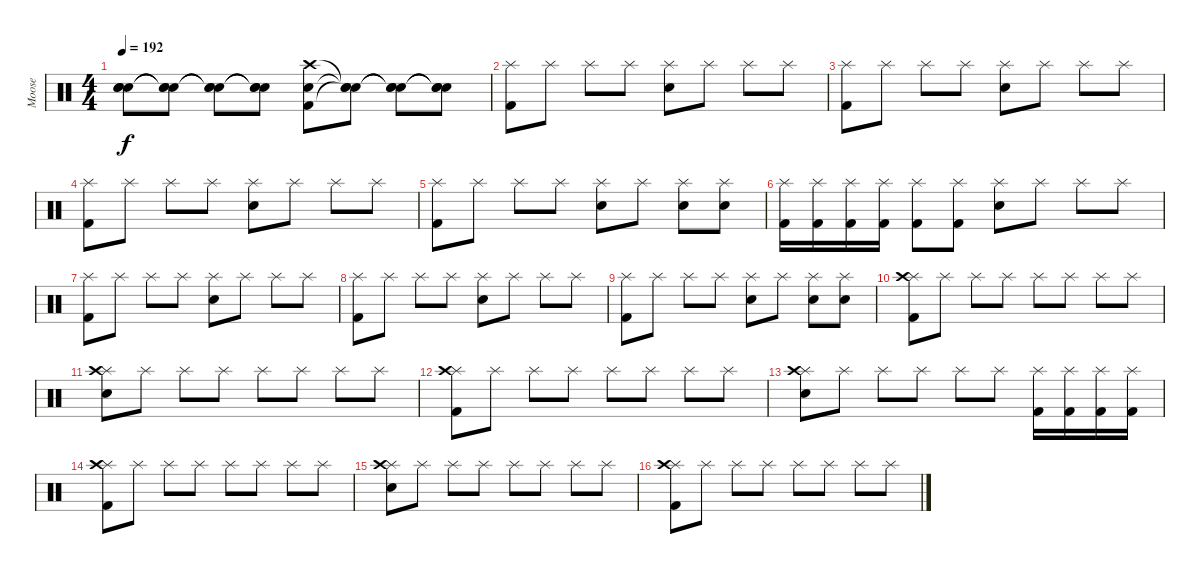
\track ("Moose" "Moose") {instrument percussion}
\staff {score}
\articulation defaults
\ts (4 4)
\tempo 192
\clef neutral
\ks c
("Snare (hit)"{t} "Snare (hit)"{t} "Snare (hit)"{t}).8{dy f} ("Snare (hit)"{t} "Snare (hit)"{t} "Snare (hit)"{t}).8 ("Snare (hit)"{t} "Snare (hit)"{t} "Snare (hit)"{t}).8 ("Snare (hit)"{t} "Snare (hit)"{t} "Snare (hit)"{t}).8 ("Kick (hit) 2" "Electric Snare (hit)" "Crash high (hit)").8 ("Snare (hit)"{t} "Snare (hit)"{t} "Snare (hit)"{t}).8 ("Snare (hit)"{t} "Snare (hit)"{t} "Snare (hit)"{t}).8 ("Snare (hit)"{t} "Snare (hit)"{t} "Snare (hit)"{t}).8 |
("Splash (hit)" "Kick (hit) 2").8 "Splash (hit)".8 "Splash (hit)".8 "Splash (hit)".8 ("Splash (hit)" "Electric Snare (hit)").8 "Splash (hit)".8 "Splash (hit)".8 "Splash (hit)".8 |
("Splash (hit)" "Kick (hit) 2").8 "Splash (hit)".8 "Splash (hit)".8 "Splash (hit)".8 ("Splash (hit)" "Electric Snare (hit)").8 "Splash (hit)".8 "Splash (hit)".8 "Splash (hit)".8 |
("Splash (hit)" "Kick (hit) 2").8 "Splash (hit)".8 "Splash (hit)".8 "Splash (hit)".8 ("Splash (hit)" "Electric Snare (hit)").8 "Splash (hit)".8 "Splash (hit)".8 "Splash (hit)".8 |
("Splash (hit)" "Kick (hit) 2").8 "Splash (hit)".8 "Splash (hit)".8 "Splash (hit)".8 ("Splash (hit)" "Electric Snare (hit)").8 "Splash (hit)".8 ("Splash (hit)" "Electric Snare (hit)").8 ("Splash (hit)" "Electric Snare (hit)").8 |
("Splash (hit)" "Kick (hit) 2").16 ("Splash (hit)" "Kick (hit) 2").16 ("Splash (hit)" "Kick (hit) 2").16 ("Splash (hit)" "Kick (hit) 2").16 ("Splash (hit)" "Kick (hit) 2").8 ("Splash (hit)" "Kick (hit) 2").8 ("Splash (hit)" "Electric Snare (hit)").8 "Splash (hit)".8 "Splash (hit)".8 "Splash (hit)".8 |
("Splash (hit)" "Kick (hit) 2").8 "Splash (hit)".8 "Splash (hit)".8 "Splash (hit)".8 ("Splash (hit)" "Electric Snare (hit)").8 "Splash (hit)".8 "Splash (hit)".8 "Splash (hit)".8 |
("Splash (hit)" "Kick (hit) 2").8 "Splash (hit)".8 "Splash (hit)".8 "Splash (hit)".8 ("Splash (hit)" "Electric Snare (hit)").8 "Splash (hit)".8 "Splash (hit)".8 "Splash (hit)".8 |
("Splash (hit)" "Kick (hit) 2").8 "Splash (hit)".8 "Splash (hit)".8 "Splash (hit)".8 ("Splash (hit)" "Electric Snare (hit)").8 "Splash (hit)".8 ("Splash (hit)" "Electric Snare (hit)").8 ("Splash (hit)" "Electric Snare (hit)").8 |
("Splash (hit)" "Crash high (hit)" "Kick (hit) 2").8 "Splash (hit)".8 "Splash (hit)".8 "Splash (hit)".8 "Splash (hit)".8 "Splash (hit)".8 "Splash (hit)".8 "Splash (hit)".8 |
("Splash (hit)" "Crash high (hit)" "Electric Snare (hit)").8 "Splash (hit)".8 "Splash (hit)".8 "Splash (hit)".8 "Splash (hit)".8 "Splash (hit)".8 "Splash (hit)".8 "Splash (hit)".8 |
("Splash (hit)" "Crash high (hit)" "Kick (hit) 2").8 "Splash (hit)".8 "Splash (hit)".8 "Splash (hit)".8 "Splash (hit)".8 "Splash (hit)".8 "Splash (hit)".8 "Splash (hit)".8 |
("Splash (hit)" "Crash high (hit)" "Electric Snare (hit)").8 "Splash (hit)".8 "Splash (hit)".8 "Splash (hit)".8 "Splash (hit)".8 "Splash (hit)".8 ("Splash (hit)" "Kick (hit) 2").16 ("Splash (hit)" "Kick (hit) 2").16 ("Splash (hit)" "Kick (hit) 2").16 ("Splash (hit)" "Kick (hit) 2").16 |
("Splash (hit)" "Crash high (hit)" "Kick (hit) 2").8 "Splash (hit)".8 "Splash (hit)".8 "Splash (hit)".8 "Splash (hit)".8 "Splash (hit)".8 "Splash (hit)".8 "Splash (hit)".8 |
("Splash (hit)" "Crash high (hit)" "Electric Snare (hit)").8 "Splash (hit)".8 "Splash (hit)".8 "Splash (hit)".8 "Splash (hit)".8 "Splash (hit)".8 "Splash (hit)".8 "Splash (hit)".8 |
("Splash (hit)" "Crash high (hit)" "Kick (hit) 2").8 "Splash (hit)".8 "Splash (hit)".8 "Splash (hit)".8 "Splash (hit)".8 "Splash (hit)".8 "Splash (hit)".8 "Splash (hit)".8
